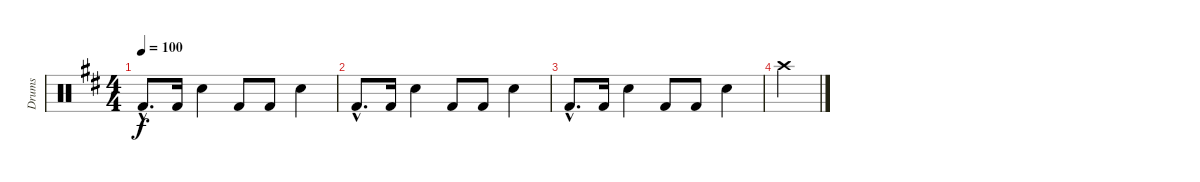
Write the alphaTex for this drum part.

\track ("Drums" "Drums") {instrument percussion}
\staff {score}
\articulation defaults
\ts (4 4)
\tempo 100
\clef neutral
\ks d "Kick (hit) 2"{hac}.8{d dy f} "Kick (hit) 2".16 "Snare (hit) 2".4 "Kick (hit) 2".8 "Kick (hit) 2".8 "Snare (hit) 2".4
|
"Kick (hit) 2"{hac}.8{d} "Kick (hit) 2".16 "Snare (hit) 2".4 "Kick (hit) 2".8 "Kick (hit) 2".8 "Snare (hit) 2".4 |
"Kick (hit) 2"{hac}.8{d} "Kick (hit) 2".16 "Snare (hit) 2".4 "Kick (hit) 2".8 "Kick (hit) 2".8 "Snare (hit) 2".4 |
"Crash high (hit)".4
